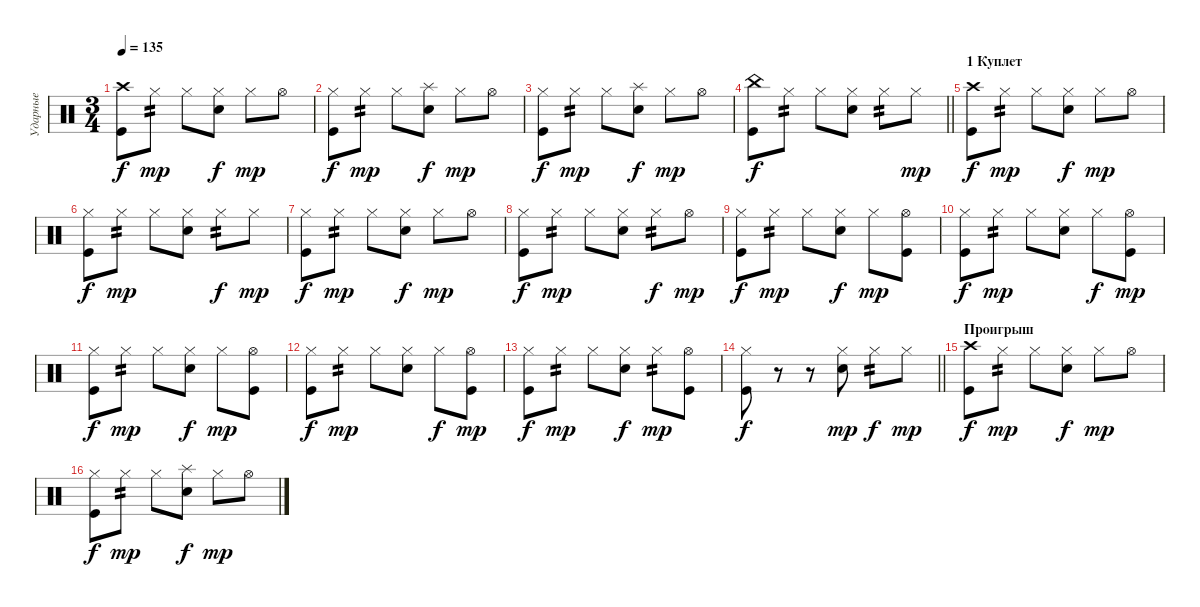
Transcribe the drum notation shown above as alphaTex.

\track ("Ударные" "Ударные") {instrument percussion}
\staff {score}
\articulation defaults
\ts (3 4)
\tempo 135
\clef neutral
\ks c
("Crash high (hit)" "Kick (hit)").8{dy f} "Hi-Hat (closed)".8{tp 2 dy mp} "Hi-Hat (closed)".8 ("Hi-Hat (closed)" "Snare (hit) 2").8{dy f} "Hi-Hat (closed)".8{dy mp} "Hi-Hat (open)".8 |
("Hi-Hat (closed)" "Kick (hit)").8{dy f} "Hi-Hat (closed)".8{tp 2 dy mp} "Hi-Hat (closed)".8 ("Splash (hit)" "Snare (hit) 2").8{dy f} "Hi-Hat (closed)".8{dy mp} "Hi-Hat (open)".8 |
("Hi-Hat (closed)" "Kick (hit)").8{dy f} "Hi-Hat (closed)".8{tp 2 dy mp} "Hi-Hat (closed)".8 ("Splash (hit)" "Snare (hit) 2").8{dy f} "Hi-Hat (closed)".8{dy mp} "Hi-Hat (open)".8 |
\barLineRight lightlight
("China (hit)" "Kick (hit)").8{dy f} "Hi-Hat (closed)".8{tp 2} "Hi-Hat (closed)".8 ("Hi-Hat (closed)" "Snare (hit) 2").8 "Hi-Hat (closed)".8{tp 2} "Hi-Hat (closed)".8{dy mp} |
\section ("" "1 Куплет")
("Crash high (hit)" "Kick (hit)").8{dy f} "Hi-Hat (closed)".8{tp 2 dy mp} "Hi-Hat (closed)".8 ("Hi-Hat (closed)" "Snare (hit) 2").8{dy f} "Hi-Hat (closed)".8{dy mp} "Hi-Hat (open)".8 |
("Hi-Hat (closed)" "Kick (hit)").8{dy f} "Hi-Hat (closed)".8{tp 2 dy mp} "Hi-Hat (closed)".8 ("Hi-Hat (closed)" "Snare (hit) 2").8 "Hi-Hat (closed)".8{tp 2 dy f} "Hi-Hat (closed)".8{dy mp} |
("Hi-Hat (closed)" "Kick (hit)").8{dy f} "Hi-Hat (closed)".8{tp 2 dy mp} "Hi-Hat (closed)".8 ("Hi-Hat (closed)" "Snare (hit) 2").8{dy f} "Hi-Hat (closed)".8{dy mp} "Hi-Hat (open)".8 |
("Hi-Hat (closed)" "Kick (hit)").8{dy f} "Hi-Hat (closed)".8{tp 2 dy mp} "Hi-Hat (closed)".8 ("Hi-Hat (closed)" "Snare (hit) 2").8 "Hi-Hat (closed)".8{tp 2 dy f} "Hi-Hat (open)".8{dy mp} |
("Hi-Hat (closed)" "Kick (hit)").8{dy f} "Hi-Hat (closed)".8{tp 2 dy mp} "Hi-Hat (closed)".8 ("Hi-Hat (closed)" "Snare (hit) 2").8{dy f} "Hi-Hat (closed)".8{dy mp} ("Hi-Hat (open)" "Kick (hit)").8 |
("Hi-Hat (closed)" "Kick (hit)").8{dy f} "Hi-Hat (closed)".8{tp 2 dy mp} "Hi-Hat (closed)".8 ("Hi-Hat (closed)" "Snare (hit) 2").8 "Hi-Hat (closed)".8{dy f} ("Hi-Hat (open)" "Kick (hit)").8{dy mp} |
("Hi-Hat (closed)" "Kick (hit)").8{dy f} "Hi-Hat (closed)".8{tp 2 dy mp} "Hi-Hat (closed)".8 ("Hi-Hat (closed)" "Snare (hit) 2").8{dy f} "Hi-Hat (closed)".8{dy mp} ("Hi-Hat (open)" "Kick (hit)").8 |
("Hi-Hat (closed)" "Kick (hit)").8{dy f} "Hi-Hat (closed)".8{tp 2 dy mp} "Hi-Hat (closed)".8 ("Hi-Hat (closed)" "Snare (hit) 2").8 "Hi-Hat (closed)".8{dy f} ("Hi-Hat (open)" "Kick (hit)").8{dy mp} |
("Hi-Hat (closed)" "Kick (hit)").8{dy f} "Hi-Hat (closed)".8{tp 2 dy mp} "Hi-Hat (closed)".8 ("Hi-Hat (closed)" "Snare (hit) 2").8{dy f} "Hi-Hat (closed)".8{tp 2 dy mp} ("Hi-Hat (open)" "Kick (hit)").8 |
\barLineRight lightlight
("Hi-Hat (closed)" "Kick (hit)").8{dy f} r.8 r.8 ("Hi-Hat (closed)" "Snare (hit) 2").8{dy mp} "Hi-Hat (closed)".8{tp 2 dy f} "Hi-Hat (closed)".8{dy mp} |
\section ("" "Проигрыш")
("Crash high (hit)" "Kick (hit)").8{dy f} "Hi-Hat (closed)".8{tp 2 dy mp} "Hi-Hat (closed)".8 ("Hi-Hat (closed)" "Snare (hit) 2").8{dy f} "Hi-Hat (closed)".8{dy mp} "Hi-Hat (open)".8 |
("Hi-Hat (closed)" "Kick (hit)").8{dy f} "Hi-Hat (closed)".8{tp 2 dy mp} "Hi-Hat (closed)".8 ("Splash (hit)" "Snare (hit) 2").8{dy f} "Hi-Hat (closed)".8{dy mp} "Hi-Hat (open)".8
